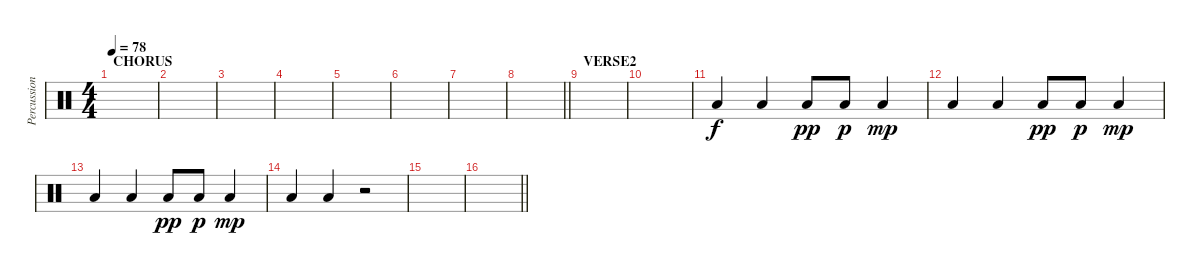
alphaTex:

\track ("Percussion" "Percussion") {instrument percussion}
\staff {score}
\articulation defaults
\ts (4 4)
\section ("" "CHORUS")
\tempo 78
\clef neutral
\ks c
|
|
|
|
|
|
|
\barLineRight lightlight
|
\section ("" "VERSE2")
|
|
"Low Floor Tom (hit)".4 "Low Floor Tom (hit)".4 "Low Floor Tom (hit)".8{dy pp} "Low Floor Tom (hit)".8{dy p} "Low Floor Tom (hit)".4{dy mp} |
"Low Floor Tom (hit)".4 "Low Floor Tom (hit)".4 "Low Floor Tom (hit)".8{dy pp} "Low Floor Tom (hit)".8{dy p} "Low Floor Tom (hit)".4{dy mp} |
"Low Floor Tom (hit)".4 "Low Floor Tom (hit)".4 "Low Floor Tom (hit)".8{dy pp} "Low Floor Tom (hit)".8{dy p} "Low Floor Tom (hit)".4{dy mp} |
"Low Floor Tom (hit)".4 "Low Floor Tom (hit)".4 r.2 |
|
\barLineRight lightlight
